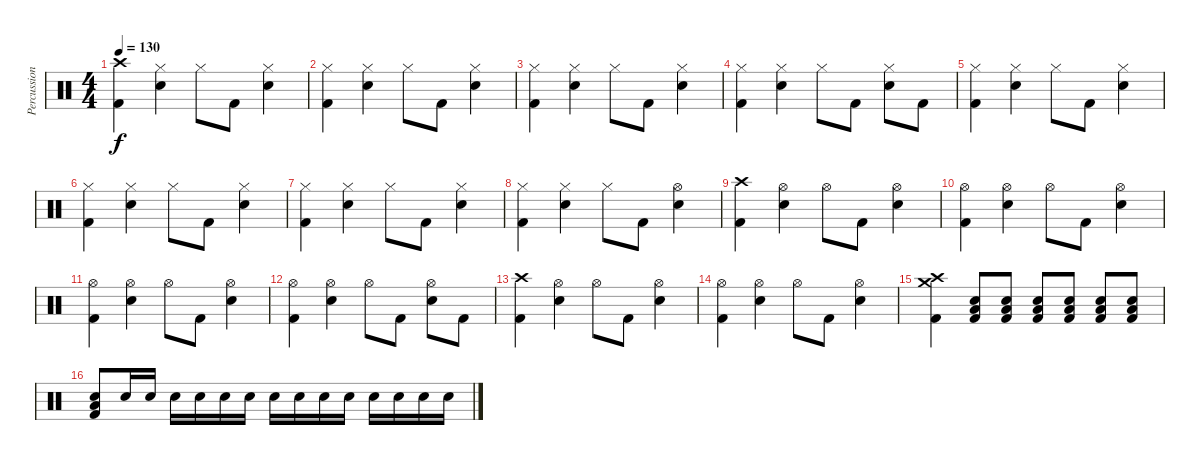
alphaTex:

\track ("Percussion" "Percussion") {instrument percussion}
\staff {score}
\articulation defaults
\ts (4 4)
\tempo 130
\clef neutral
\ks c
("Crash high (hit)" "Kick (hit) 2").4{dy f} ("Hi-Hat (closed)" "Snare (hit) 2").4 "Hi-Hat (closed)".8 "Kick (hit) 2".8 ("Hi-Hat (closed)" "Snare (hit) 2").4 |
("Hi-Hat (closed)" "Kick (hit) 2").4 ("Hi-Hat (closed)" "Snare (hit) 2").4 "Hi-Hat (closed)".8 "Kick (hit) 2".8 ("Hi-Hat (closed)" "Snare (hit) 2").4 |
("Hi-Hat (closed)" "Kick (hit) 2").4 ("Hi-Hat (closed)" "Snare (hit) 2").4 "Hi-Hat (closed)".8 "Kick (hit) 2".8 ("Hi-Hat (closed)" "Snare (hit) 2").4 |
("Hi-Hat (closed)" "Kick (hit) 2").4 ("Hi-Hat (closed)" "Snare (hit) 2").4 "Hi-Hat (closed)".8 "Kick (hit) 2".8 ("Hi-Hat (closed)" "Snare (hit) 2").8 "Kick (hit) 2".8 |
("Hi-Hat (closed)" "Kick (hit) 2").4 ("Hi-Hat (closed)" "Snare (hit) 2").4 "Hi-Hat (closed)".8 "Kick (hit) 2".8 ("Hi-Hat (closed)" "Snare (hit) 2").4 |
("Hi-Hat (closed)" "Kick (hit) 2").4 ("Hi-Hat (closed)" "Snare (hit) 2").4 "Hi-Hat (closed)".8 "Kick (hit) 2".8 ("Hi-Hat (closed)" "Snare (hit) 2").4 |
("Hi-Hat (closed)" "Kick (hit) 2").4 ("Hi-Hat (closed)" "Snare (hit) 2").4 "Hi-Hat (closed)".8 "Kick (hit) 2".8 ("Hi-Hat (closed)" "Snare (hit) 2").4 |
("Hi-Hat (closed)" "Kick (hit) 2").4 ("Hi-Hat (closed)" "Snare (hit) 2").4 "Hi-Hat (closed)".8 "Kick (hit) 2".8 ("Hi-Hat (open)" "Snare (hit) 2").4 |
("Crash high (hit)" "Kick (hit) 2").4 ("Hi-Hat (open)" "Snare (hit) 2").4 "Hi-Hat (open)".8 "Kick (hit) 2".8 ("Hi-Hat (open)" "Snare (hit) 2").4 |
("Hi-Hat (open)" "Kick (hit) 2").4 ("Hi-Hat (open)" "Snare (hit) 2").4 "Hi-Hat (open)".8 "Kick (hit) 2".8 ("Hi-Hat (open)" "Snare (hit) 2").4 |
("Hi-Hat (open)" "Kick (hit) 2").4 ("Hi-Hat (open)" "Snare (hit) 2").4 "Hi-Hat (open)".8 "Kick (hit) 2".8 ("Hi-Hat (open)" "Snare (hit) 2").4 |
("Hi-Hat (open)" "Kick (hit) 2").4 ("Hi-Hat (open)" "Snare (hit) 2").4 "Hi-Hat (open)".8 "Kick (hit) 2".8 ("Hi-Hat (open)" "Snare (hit) 2").8 "Kick (hit) 2".8 |
("Crash high (hit)" "Kick (hit) 2").4 ("Hi-Hat (open)" "Snare (hit) 2").4 "Hi-Hat (open)".8 "Kick (hit) 2".8 ("Hi-Hat (open)" "Snare (hit) 2").4 |
("Hi-Hat (open)" "Kick (hit) 2").4 ("Hi-Hat (open)" "Snare (hit) 2").4 "Hi-Hat (open)".8 "Kick (hit) 2".8 ("Hi-Hat (open)" "Snare (hit) 2").4 |
("Crash high (hit)" "Crash medium (hit)" "Kick (hit) 2").4 ("Snare (hit) 2" "Low Floor Tom (hit)" "Kick (hit) 2").8 ("Snare (hit) 2" "Low Floor Tom (hit)" "Kick (hit) 2").8 ("Snare (hit) 2" "Low Floor Tom (hit)" "Kick (hit) 2").8 ("Snare (hit) 2" "Low Floor Tom (hit)" "Kick (hit) 2").8 ("Snare (hit) 2" "Low Floor Tom (hit)" "Kick (hit) 2").8 ("Snare (hit) 2" "Low Floor Tom (hit)" "Kick (hit) 2").8 |
("Snare (hit) 2" "Low Floor Tom (hit)" "Kick (hit) 2").8 "Snare (hit) 2".16 "Snare (hit) 2".16 "Snare (hit) 2".16 "Snare (hit) 2".16 "Snare (hit) 2".16 "Snare (hit) 2".16 "Snare (hit) 2".16 "Snare (hit) 2".16 "Snare (hit) 2".16 "Snare (hit) 2".16 "Snare (hit) 2".16 "Snare (hit) 2".16 "Snare (hit) 2".16 "Snare (hit) 2".16
